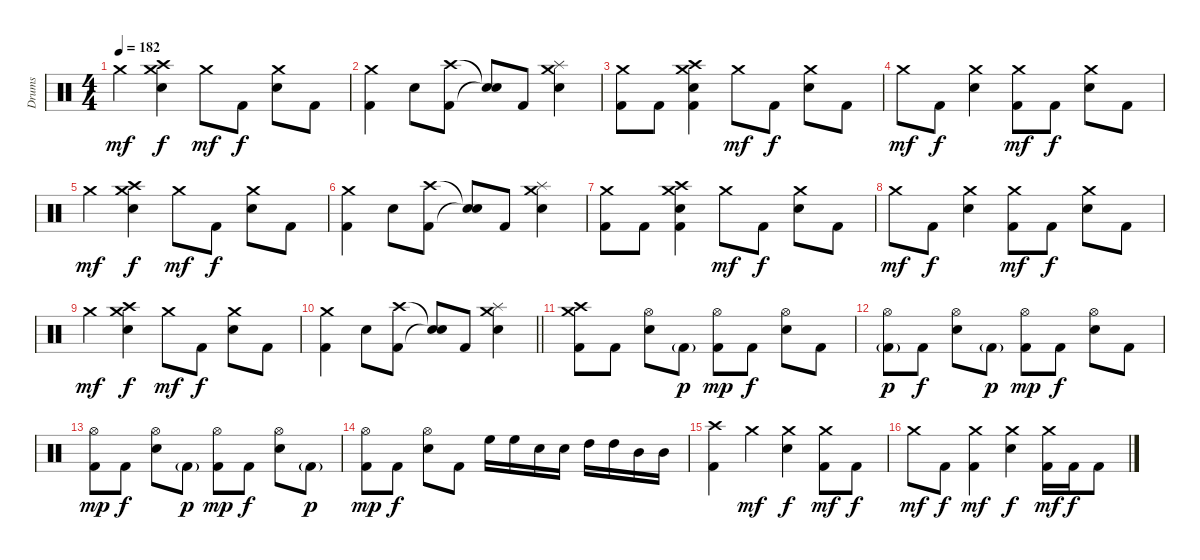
\track ("Drums" "Drums") {instrument percussion}
\staff {score}
\articulation defaults
\ts (4 4)
\tempo 182
\clef neutral
\ks c "Crash medium (hit)".4{dy mf}
("Crash medium (hit)" "Crash high (hit)" "Electric Snare (hit)").4{dy f} "Crash medium (hit)".8{dy mf} "Kick (hit) 2".8{dy f} ("Crash medium (hit)" "Electric Snare (hit)").8 "Kick (hit) 2".8 |
("Crash medium (hit)" "Kick (hit) 2").4 "Electric Snare (hit)".8 ("Crash high (hit)" "Kick (hit) 2").8 ("Snare (hit)"{t} "Snare (hit)"{t}).8 "Kick (hit) 2".8 ("Crash medium (hit)" "Splash (hit)" "Electric Snare (hit)").4 |
("Crash medium (hit)" "Kick (hit) 2").8 "Kick (hit) 2".8 ("Crash medium (hit)" "Crash high (hit)" "Electric Snare (hit)" "Kick (hit) 2").4 "Crash medium (hit)".8{dy mf} "Kick (hit) 2".8{dy f} ("Crash medium (hit)" "Electric Snare (hit)").8 "Kick (hit) 2".8 |
"Crash medium (hit)".8{dy mf} "Kick (hit) 2".8{dy f} ("Crash medium (hit)" "Electric Snare (hit)").4 ("Crash medium (hit)" "Kick (hit) 2").8{dy mf} "Kick (hit) 2".8{dy f} ("Crash medium (hit)" "Electric Snare (hit)").8 "Kick (hit) 2".8 |
"Crash medium (hit)".4{dy mf} ("Crash medium (hit)" "Crash high (hit)" "Electric Snare (hit)").4{dy f} "Crash medium (hit)".8{dy mf} "Kick (hit) 2".8{dy f} ("Crash medium (hit)" "Electric Snare (hit)").8 "Kick (hit) 2".8 |
("Crash medium (hit)" "Kick (hit) 2").4 "Electric Snare (hit)".8 ("Crash high (hit)" "Kick (hit) 2").8 ("Snare (hit)"{t} "Snare (hit)"{t}).8 "Kick (hit) 2".8 ("Crash medium (hit)" "Splash (hit)" "Electric Snare (hit)").4 |
("Crash medium (hit)" "Kick (hit) 2").8 "Kick (hit) 2".8 ("Crash medium (hit)" "Crash high (hit)" "Electric Snare (hit)" "Kick (hit) 2").4 "Crash medium (hit)".8{dy mf} "Kick (hit) 2".8{dy f} ("Crash medium (hit)" "Electric Snare (hit)").8 "Kick (hit) 2".8 |
"Crash medium (hit)".8{dy mf} "Kick (hit) 2".8{dy f} ("Crash medium (hit)" "Electric Snare (hit)").4 ("Crash medium (hit)" "Kick (hit) 2").8{dy mf} "Kick (hit) 2".8{dy f} ("Crash medium (hit)" "Electric Snare (hit)").8 "Kick (hit) 2".8 |
"Crash medium (hit)".4{dy mf} ("Crash medium (hit)" "Crash high (hit)" "Electric Snare (hit)").4{dy f} "Crash medium (hit)".8{dy mf} "Kick (hit) 2".8{dy f} ("Crash medium (hit)" "Electric Snare (hit)").8 "Kick (hit) 2".8 |
\barLineRight lightlight
("Crash medium (hit)" "Kick (hit) 2").4 "Electric Snare (hit)".8 ("Crash high (hit)" "Kick (hit) 2").8 ("Snare (hit)"{t} "Snare (hit)"{t}).8 "Kick (hit) 2".8 ("Crash medium (hit)" "Splash (hit)" "Electric Snare (hit)").4 |
("Crash high (hit)" "Crash medium (hit)" "Kick (hit) 2").8 "Kick (hit) 2".8 ("Hi-Hat (open)" "Electric Snare (hit)").8 "Kick (hit) 2"{g}.8{dy p} ("Hi-Hat (open)" "Kick (hit) 2").8{dy mp} "Kick (hit) 2".8{dy f} ("Hi-Hat (open)" "Electric Snare (hit)").8 "Kick (hit) 2".8 |
("Hi-Hat (open)" "Kick (hit) 2"{g}).8{dy p} "Kick (hit) 2".8{dy f} ("Hi-Hat (open)" "Electric Snare (hit)").8 "Kick (hit) 2"{g}.8{dy p} ("Hi-Hat (open)" "Kick (hit) 2").8{dy mp} "Kick (hit) 2".8{dy f} ("Hi-Hat (open)" "Electric Snare (hit)").8 "Kick (hit) 2".8 |
("Hi-Hat (open)" "Kick (hit) 2").8{dy mp} "Kick (hit) 2".8{dy f} ("Hi-Hat (open)" "Electric Snare (hit)").8 "Kick (hit) 2"{g}.8{dy p} ("Hi-Hat (open)" "Kick (hit) 2").8{dy mp} "Kick (hit) 2".8{dy f} ("Hi-Hat (open)" "Electric Snare (hit)").8 "Kick (hit) 2"{g}.8{dy p} |
("Hi-Hat (open)" "Kick (hit) 2").8{dy mp} "Kick (hit) 2".8{dy f} ("Hi-Hat (open)" "Electric Snare (hit)").8 "Kick (hit) 2".8 "High Floor Tom (hit)".16 "High Floor Tom (hit)".16 "Electric Snare (hit)".16 "Electric Snare (hit)".16 "High Tom (hit)".16 "High Tom (hit)".16 "Mid Tom (hit)".16 "Mid Tom (hit)".16 |
("Crash high (hit)" "Kick (hit) 2").4 "Crash medium (hit)".4{dy mf} ("Crash medium (hit)" "Electric Snare (hit)").4{dy f} ("Crash medium (hit)" "Kick (hit) 2").8{dy mf} "Kick (hit) 2".8{dy f} |
"Crash medium (hit)".8{dy mf} "Kick (hit) 2".8{dy f} ("Crash medium (hit)" "Kick (hit) 2").4{dy mf} ("Crash medium (hit)" "Electric Snare (hit)").4{dy f} ("Crash medium (hit)" "Kick (hit) 2").16{dy mf} "Kick (hit) 2".16{dy f} "Kick (hit) 2".8
